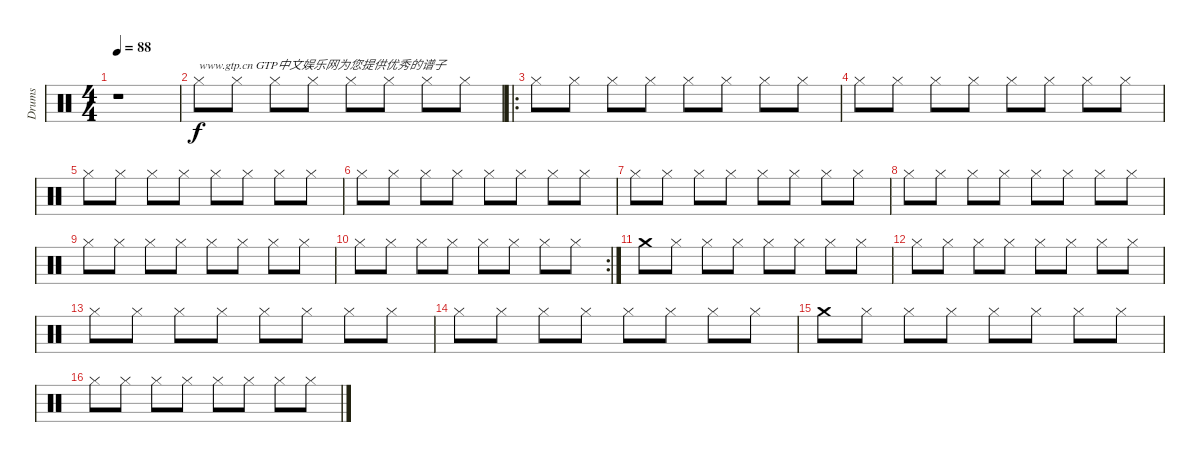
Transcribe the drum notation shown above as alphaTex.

\track ("Drums" "Drums") {instrument percussion}
\staff {score}
\articulation defaults
\ts (4 4)
\tempo 88
\clef neutral
\ks c
r.1{dy f} |
"Hi-Hat (closed)".8{txt "www.gtp.cn GTP中文娱乐网为您提供优秀的谱子"} "Hi-Hat (closed)".8 "Hi-Hat (closed)".8 "Hi-Hat (closed)".8 "Hi-Hat (closed)".8 "Hi-Hat (closed)".8 "Hi-Hat (closed)".8 "Hi-Hat (closed)".8 |
\ro "Hi-Hat (closed)".8 "Hi-Hat (closed)".8 "Hi-Hat (closed)".8 "Hi-Hat (closed)".8 "Hi-Hat (closed)".8 "Hi-Hat (closed)".8 "Hi-Hat (closed)".8 "Hi-Hat (closed)".8
|
"Hi-Hat (closed)".8 "Hi-Hat (closed)".8 "Hi-Hat (closed)".8 "Hi-Hat (closed)".8 "Hi-Hat (closed)".8 "Hi-Hat (closed)".8 "Hi-Hat (closed)".8 "Hi-Hat (closed)".8 |
"Hi-Hat (closed)".8 "Hi-Hat (closed)".8 "Hi-Hat (closed)".8 "Hi-Hat (closed)".8 "Hi-Hat (closed)".8 "Hi-Hat (closed)".8 "Hi-Hat (closed)".8 "Hi-Hat (closed)".8 |
"Hi-Hat (closed)".8 "Hi-Hat (closed)".8 "Hi-Hat (closed)".8 "Hi-Hat (closed)".8 "Hi-Hat (closed)".8 "Hi-Hat (closed)".8 "Hi-Hat (closed)".8 "Hi-Hat (closed)".8 |
"Hi-Hat (closed)".8 "Hi-Hat (closed)".8 "Hi-Hat (closed)".8 "Hi-Hat (closed)".8 "Hi-Hat (closed)".8 "Hi-Hat (closed)".8 "Hi-Hat (closed)".8 "Hi-Hat (closed)".8 |
"Hi-Hat (closed)".8 "Hi-Hat (closed)".8 "Hi-Hat (closed)".8 "Hi-Hat (closed)".8 "Hi-Hat (closed)".8 "Hi-Hat (closed)".8 "Hi-Hat (closed)".8 "Hi-Hat (closed)".8 |
"Hi-Hat (closed)".8 "Hi-Hat (closed)".8 "Hi-Hat (closed)".8 "Hi-Hat (closed)".8 "Hi-Hat (closed)".8 "Hi-Hat (closed)".8 "Hi-Hat (closed)".8 "Hi-Hat (closed)".8 |
\rc 2 "Hi-Hat (closed)".8 "Hi-Hat (closed)".8 "Hi-Hat (closed)".8 "Hi-Hat (closed)".8 "Hi-Hat (closed)".8 "Hi-Hat (closed)".8 "Hi-Hat (closed)".8 "Hi-Hat (closed)".8
|
"Crash medium (hit)".8 "Hi-Hat (closed)".8 "Hi-Hat (closed)".8 "Hi-Hat (closed)".8 "Hi-Hat (closed)".8 "Hi-Hat (closed)".8 "Hi-Hat (closed)".8 "Hi-Hat (closed)".8 |
"Hi-Hat (closed)".8 "Hi-Hat (closed)".8 "Hi-Hat (closed)".8 "Hi-Hat (closed)".8 "Hi-Hat (closed)".8 "Hi-Hat (closed)".8 "Hi-Hat (closed)".8 "Hi-Hat (closed)".8 |
"Hi-Hat (closed)".8 "Hi-Hat (closed)".8 "Hi-Hat (closed)".8 "Hi-Hat (closed)".8 "Hi-Hat (closed)".8 "Hi-Hat (closed)".8 "Hi-Hat (closed)".8 "Hi-Hat (closed)".8 |
"Hi-Hat (closed)".8 "Hi-Hat (closed)".8 "Hi-Hat (closed)".8 "Hi-Hat (closed)".8 "Hi-Hat (closed)".8 "Hi-Hat (closed)".8 "Hi-Hat (closed)".8 "Hi-Hat (closed)".8 |
"Crash medium (hit)".8 "Hi-Hat (closed)".8 "Hi-Hat (closed)".8 "Hi-Hat (closed)".8 "Hi-Hat (closed)".8 "Hi-Hat (closed)".8 "Hi-Hat (closed)".8 "Hi-Hat (closed)".8 |
"Hi-Hat (closed)".8 "Hi-Hat (closed)".8 "Hi-Hat (closed)".8 "Hi-Hat (closed)".8 "Hi-Hat (closed)".8 "Hi-Hat (closed)".8 "Hi-Hat (closed)".8 "Hi-Hat (closed)".8
